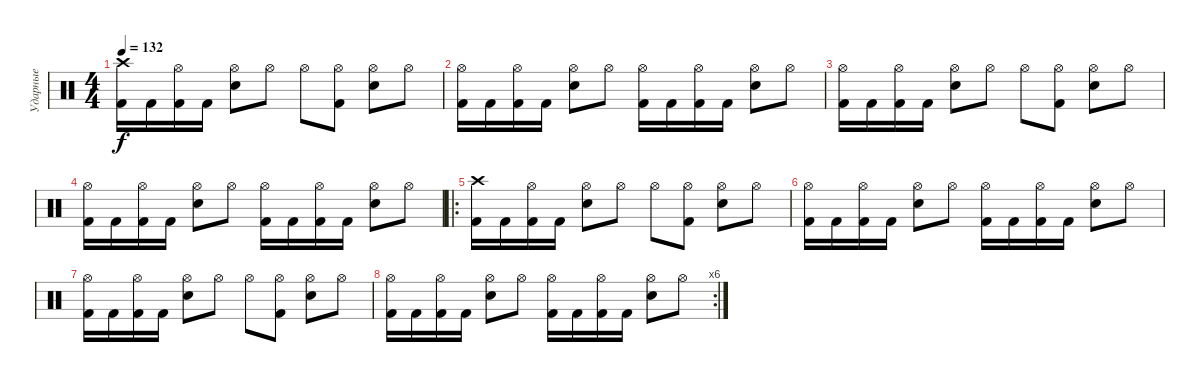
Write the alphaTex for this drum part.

\track ("Ударные" "Ударные") {instrument percussion}
\staff {score}
\articulation defaults
\ts (4 4)
\tempo 132
\clef neutral
\ks c
("Crash high (hit)" "Kick (hit) 2").16{dy f} "Kick (hit) 2".16 ("Hi-Hat (open)" "Kick (hit) 2").16 "Kick (hit) 2".16 ("Hi-Hat (open)" "Snare (hit) 2").8 "Hi-Hat (open)".8 "Hi-Hat (open)".8 ("Hi-Hat (open)" "Kick (hit) 2").8 ("Hi-Hat (open)" "Snare (hit) 2").8 "Hi-Hat (open)".8 |
("Hi-Hat (open)" "Kick (hit) 2").16 "Kick (hit) 2".16 ("Hi-Hat (open)" "Kick (hit) 2").16 "Kick (hit) 2".16 ("Hi-Hat (open)" "Snare (hit) 2").8 "Hi-Hat (open)".8 ("Hi-Hat (open)" "Kick (hit) 2").16 "Kick (hit) 2".16 ("Hi-Hat (open)" "Kick (hit) 2").16 "Kick (hit) 2".16 ("Hi-Hat (open)" "Snare (hit) 2").8 "Hi-Hat (open)".8 |
("Hi-Hat (open)" "Kick (hit) 2").16 "Kick (hit) 2".16 ("Hi-Hat (open)" "Kick (hit) 2").16 "Kick (hit) 2".16 ("Hi-Hat (open)" "Snare (hit) 2").8 "Hi-Hat (open)".8 "Hi-Hat (open)".8 ("Hi-Hat (open)" "Kick (hit) 2").8 ("Hi-Hat (open)" "Snare (hit) 2").8 "Hi-Hat (open)".8 |
("Hi-Hat (open)" "Kick (hit) 2").16 "Kick (hit) 2".16 ("Hi-Hat (open)" "Kick (hit) 2").16 "Kick (hit) 2".16 ("Hi-Hat (open)" "Snare (hit) 2").8 "Hi-Hat (open)".8 ("Hi-Hat (open)" "Kick (hit) 2").16 "Kick (hit) 2".16 ("Hi-Hat (open)" "Kick (hit) 2").16 "Kick (hit) 2".16 ("Hi-Hat (open)" "Snare (hit) 2").8 "Hi-Hat (open)".8 |
\ro
("Crash high (hit)" "Kick (hit) 2").16 "Kick (hit) 2".16 ("Hi-Hat (open)" "Kick (hit) 2").16 "Kick (hit) 2".16 ("Hi-Hat (open)" "Snare (hit) 2").8 "Hi-Hat (open)".8 "Hi-Hat (open)".8 ("Hi-Hat (open)" "Kick (hit) 2").8 ("Hi-Hat (open)" "Snare (hit) 2").8 "Hi-Hat (open)".8 |
("Hi-Hat (open)" "Kick (hit) 2").16 "Kick (hit) 2".16 ("Hi-Hat (open)" "Kick (hit) 2").16 "Kick (hit) 2".16 ("Hi-Hat (open)" "Snare (hit) 2").8 "Hi-Hat (open)".8 ("Hi-Hat (open)" "Kick (hit) 2").16 "Kick (hit) 2".16 ("Hi-Hat (open)" "Kick (hit) 2").16 "Kick (hit) 2".16 ("Hi-Hat (open)" "Snare (hit) 2").8 "Hi-Hat (open)".8 |
("Hi-Hat (open)" "Kick (hit) 2").16 "Kick (hit) 2".16 ("Hi-Hat (open)" "Kick (hit) 2").16 "Kick (hit) 2".16 ("Hi-Hat (open)" "Snare (hit) 2").8 "Hi-Hat (open)".8 "Hi-Hat (open)".8 ("Hi-Hat (open)" "Kick (hit) 2").8 ("Hi-Hat (open)" "Snare (hit) 2").8 "Hi-Hat (open)".8 |
\rc 6
("Hi-Hat (open)" "Kick (hit) 2").16 "Kick (hit) 2".16 ("Hi-Hat (open)" "Kick (hit) 2").16 "Kick (hit) 2".16 ("Hi-Hat (open)" "Snare (hit) 2").8 "Hi-Hat (open)".8 ("Hi-Hat (open)" "Kick (hit) 2").16 "Kick (hit) 2".16 ("Hi-Hat (open)" "Kick (hit) 2").16 "Kick (hit) 2".16 ("Hi-Hat (open)" "Snare (hit) 2").8 "Hi-Hat (open)".8
